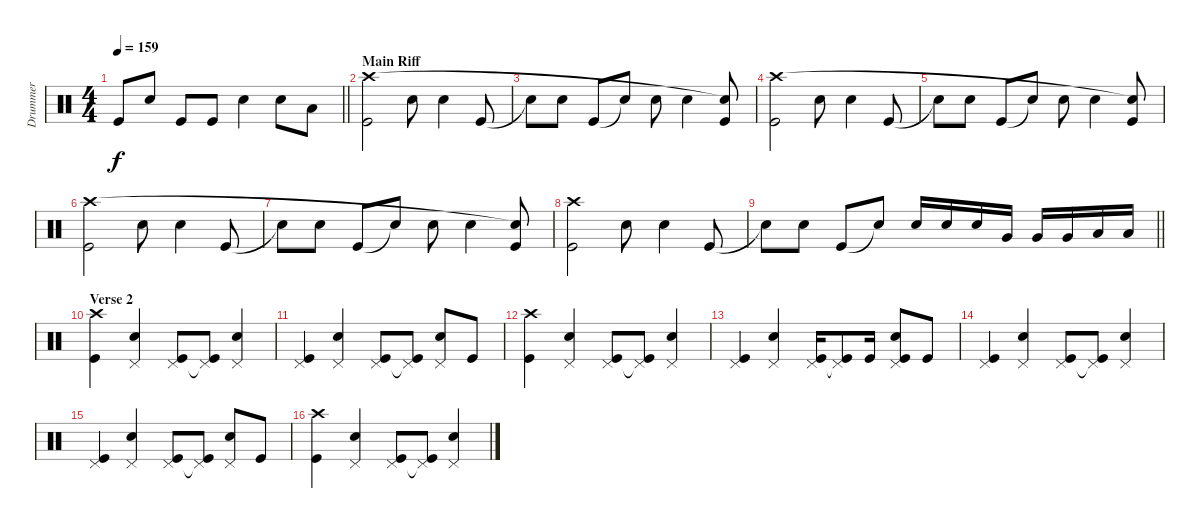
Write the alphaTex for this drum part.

\track ("Drummer" "Drummer") {instrument percussion}
\staff {score}
\articulation defaults
\ts (4 4)
\tempo 159
\clef neutral
\barLineRight lightlight
\ks c "Kick (hit)".8{dy f} "Snare (hit) 2".8 "Kick (hit)".8 "Kick (hit)".8 "Snare (hit) 2".4 "Electric Snare (hit)".8 "Low Floor Tom (hit)".8
|
\section ("" "Main Riff")
("Kick (hit)" "Crash high (hit)").2 "Snare (hit) 2".8 "Snare (hit) 2".4 "Kick (hit)".8 |
"Snare (hit)"{t}.8 "Snare (hit) 2".8 "Kick (hit)".8 "Snare (hit)"{t}.8 "Snare (hit) 2".8 "Snare (hit) 2".4 ("Kick (hit)" "Snare (hit)"{t}).8 |
("Kick (hit)" "Crash high (hit)").2 "Snare (hit) 2".8 "Snare (hit) 2".4 "Kick (hit)".8 |
"Snare (hit)"{t}.8 "Snare (hit) 2".8 "Kick (hit)".8 "Snare (hit)"{t}.8 "Snare (hit) 2".8 "Snare (hit) 2".4 ("Kick (hit)" "Snare (hit)"{t}).8 |
("Kick (hit)" "Crash high (hit)").2 "Snare (hit) 2".8 "Snare (hit) 2".4 "Kick (hit)".8 |
"Snare (hit)"{t}.8 "Snare (hit) 2".8 "Kick (hit)".8 "Snare (hit)"{t}.8 "Snare (hit) 2".8 "Snare (hit) 2".4 ("Kick (hit)" "Snare (hit)"{t}).8 |
("Kick (hit)" "Crash high (hit)").2 "Snare (hit) 2".8 "Snare (hit) 2".4 "Kick (hit)".8 |
\barLineRight lightlight "Snare (hit)"{t}.8 "Snare (hit) 2".8 "Kick (hit)".8 "Snare (hit)"{t}.8 "Snare (hit) 2".16 "Snare (hit) 2".16 "Snare (hit) 2".16 "Very Low Tom (hit)".16 "Very Low Tom (hit)".16 "Very Low Tom (hit)".16 "Low Tom (hit)".16 "Low Tom (hit)".16
|
\section ("" "Verse 2")
("Kick (hit)" "Crash high (hit)").4 ("Pedal Hi-Hat (hit)" "Snare (hit) 2").4 ("Kick (hit)" "Pedal Hi-Hat (hit)").8 ("Kick (hit)" "Pedal Hi-Hat (hit)"{t}).8 ("Pedal Hi-Hat (hit)" "Snare (hit) 2").4 |
("Kick (hit)" "Pedal Hi-Hat (hit)").4 ("Pedal Hi-Hat (hit)" "Snare (hit) 2").4 ("Kick (hit)" "Pedal Hi-Hat (hit)").8 ("Kick (hit)" "Pedal Hi-Hat (hit)"{t}).8 ("Pedal Hi-Hat (hit)" "Snare (hit) 2").8 "Kick (hit)".8 |
("Kick (hit)" "Crash high (hit)").4 ("Pedal Hi-Hat (hit)" "Snare (hit) 2").4 ("Kick (hit)" "Pedal Hi-Hat (hit)").8 ("Kick (hit)" "Pedal Hi-Hat (hit)"{t}).8 ("Pedal Hi-Hat (hit)" "Snare (hit) 2").4 |
("Kick (hit)" "Pedal Hi-Hat (hit)").4 ("Pedal Hi-Hat (hit)" "Snare (hit) 2").4 ("Kick (hit)" "Pedal Hi-Hat (hit)").16 ("Kick (hit)" "Pedal Hi-Hat (hit)"{t}).8 "Kick (hit)".16 ("Kick (hit)" "Pedal Hi-Hat (hit)" "Snare (hit) 2").8 "Kick (hit)".8 |
("Kick (hit)" "Pedal Hi-Hat (hit)").4 ("Pedal Hi-Hat (hit)" "Snare (hit) 2").4 ("Kick (hit)" "Pedal Hi-Hat (hit)").8 ("Kick (hit)" "Pedal Hi-Hat (hit)"{t}).8 ("Pedal Hi-Hat (hit)" "Snare (hit) 2").4 |
("Kick (hit)" "Pedal Hi-Hat (hit)").4 ("Pedal Hi-Hat (hit)" "Snare (hit) 2").4 ("Kick (hit)" "Pedal Hi-Hat (hit)").8 ("Kick (hit)" "Pedal Hi-Hat (hit)"{t}).8 ("Pedal Hi-Hat (hit)" "Snare (hit) 2").8 "Kick (hit)".8 |
("Kick (hit)" "Crash high (hit)").4 ("Pedal Hi-Hat (hit)" "Snare (hit) 2").4 ("Kick (hit)" "Pedal Hi-Hat (hit)").8 ("Kick (hit)" "Pedal Hi-Hat (hit)"{t}).8 ("Pedal Hi-Hat (hit)" "Snare (hit) 2").4
